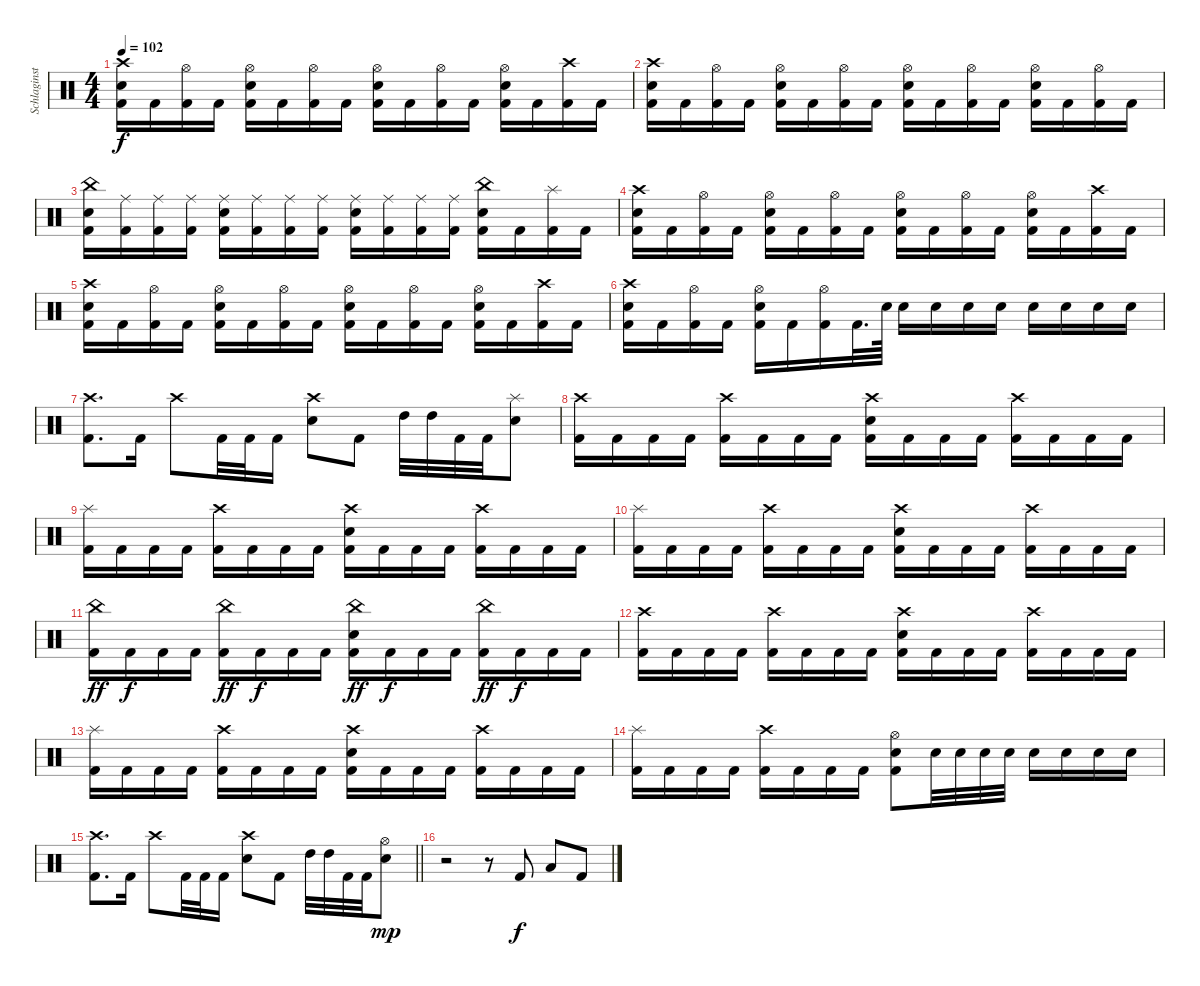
\track ("Schlaginstrumente - Auswahl" "Schlaginst") {instrument percussion}
\staff {score}
\articulation defaults
\ts (4 4)
\tempo 102
\clef neutral
\ks c
("Crash high (hit)" "Snare (hit) 2" "Kick (hit) 2").16{dy f} "Kick (hit) 2".16 ("Hi-Hat (open)" "Kick (hit) 2").16 "Kick (hit) 2".16 ("Hi-Hat (open)" "Snare (hit) 2" "Kick (hit) 2").16 "Kick (hit) 2".16 ("Hi-Hat (open)" "Kick (hit) 2").16 "Kick (hit) 2".16 ("Hi-Hat (open)" "Snare (hit) 2" "Kick (hit) 2").16 "Kick (hit) 2".16 ("Hi-Hat (open)" "Kick (hit) 2").16 "Kick (hit) 2".16 ("Hi-Hat (open)" "Snare (hit) 2" "Kick (hit) 2").16 "Kick (hit) 2".16 ("Crash high (hit)" "Kick (hit) 2").16 "Kick (hit) 2".16 |
("Crash high (hit)" "Snare (hit) 2" "Kick (hit) 2").16 "Kick (hit) 2".16 ("Hi-Hat (open)" "Kick (hit) 2").16 "Kick (hit) 2".16 ("Hi-Hat (open)" "Snare (hit) 2" "Kick (hit) 2").16 "Kick (hit) 2".16 ("Hi-Hat (open)" "Kick (hit) 2").16 "Kick (hit) 2".16 ("Hi-Hat (open)" "Snare (hit) 2" "Kick (hit) 2").16 "Kick (hit) 2".16 ("Hi-Hat (open)" "Kick (hit) 2").16 "Kick (hit) 2".16 ("Hi-Hat (open)" "Snare (hit) 2" "Kick (hit) 2").16 "Kick (hit) 2".16 ("Hi-Hat (open)" "Kick (hit) 2").16 "Kick (hit) 2".16 |
("China (hit)" "Snare (hit) 2" "Kick (hit) 2").16 ("Ride (middle)" "Kick (hit) 2").16 ("Ride (middle)" "Kick (hit) 2").16 ("Ride (middle)" "Kick (hit) 2").16 ("Ride (middle)" "Snare (hit) 2" "Kick (hit) 2").16 ("Ride (middle)" "Kick (hit) 2").16 ("Ride (middle)" "Kick (hit) 2").16 ("Ride (middle)" "Kick (hit) 2").16 ("Ride (middle)" "Snare (hit) 2" "Kick (hit) 2").16 ("Ride (middle)" "Kick (hit) 2").16 ("Ride (middle)" "Kick (hit) 2").16 ("Ride (middle)" "Kick (hit) 2").16 ("China (hit)" "Snare (hit) 2" "Kick (hit) 2").16 "Kick (hit) 2".16 ("Splash (hit)" "Kick (hit) 2").16 "Kick (hit) 2".16 |
("Crash high (hit)" "Snare (hit) 2" "Kick (hit) 2").16 "Kick (hit) 2".16 ("Hi-Hat (open)" "Kick (hit) 2").16 "Kick (hit) 2".16 ("Hi-Hat (open)" "Snare (hit) 2" "Kick (hit) 2").16 "Kick (hit) 2".16 ("Hi-Hat (open)" "Kick (hit) 2").16 "Kick (hit) 2".16 ("Hi-Hat (open)" "Snare (hit) 2" "Kick (hit) 2").16 "Kick (hit) 2".16 ("Hi-Hat (open)" "Kick (hit) 2").16 "Kick (hit) 2".16 ("Hi-Hat (open)" "Snare (hit) 2" "Kick (hit) 2").16 "Kick (hit) 2".16 ("Crash high (hit)" "Kick (hit) 2").16 "Kick (hit) 2".16 |
("Crash high (hit)" "Snare (hit) 2" "Kick (hit) 2").16 "Kick (hit) 2".16 ("Hi-Hat (open)" "Kick (hit) 2").16 "Kick (hit) 2".16 ("Hi-Hat (open)" "Snare (hit) 2" "Kick (hit) 2").16 "Kick (hit) 2".16 ("Hi-Hat (open)" "Kick (hit) 2").16 "Kick (hit) 2".16 ("Hi-Hat (open)" "Snare (hit) 2" "Kick (hit) 2").16 "Kick (hit) 2".16 ("Hi-Hat (open)" "Kick (hit) 2").16 "Kick (hit) 2".16 ("Hi-Hat (open)" "Snare (hit) 2" "Kick (hit) 2").16 "Kick (hit) 2".16 ("Crash high (hit)" "Kick (hit) 2").16 "Kick (hit) 2".16 |
("Crash high (hit)" "Snare (hit) 2" "Kick (hit) 2").16 "Kick (hit) 2".16 ("Hi-Hat (open)" "Kick (hit) 2").16 "Kick (hit) 2".16 ("Hi-Hat (open)" "Snare (hit) 2" "Kick (hit) 2").16 "Kick (hit) 2".16 ("Hi-Hat (open)" "Kick (hit) 2").16 "Kick (hit) 2".32{d} "Snare (hit) 2".64 "Snare (hit) 2".16 "Snare (hit) 2".16 "Snare (hit) 2".16 "Snare (hit) 2".16 "Snare (hit) 2".16 "Snare (hit) 2".16 "Snare (hit) 2".16 "Snare (hit) 2".16 |
("Crash high (hit)" "Kick (hit) 2").8{d} "Kick (hit) 2".16 "Crash high (hit)".8 "Kick (hit) 2".32 "Kick (hit) 2".32 "Kick (hit) 2".16 ("Crash high (hit)" "Snare (hit) 2").8 "Kick (hit) 2".8 "High Tom (hit)".32 "High Tom (hit)".32 "Kick (hit) 2".32 "Kick (hit) 2".32 ("Splash (hit)" "Snare (hit) 2").8 |
("Crash high (hit)" "Kick (hit) 2").16 "Kick (hit) 2".16 "Kick (hit) 2".16 "Kick (hit) 2".16 ("Crash high (hit)" "Kick (hit) 2").16 "Kick (hit) 2".16 "Kick (hit) 2".16 "Kick (hit) 2".16 ("Crash high (hit)" "Snare (hit) 2" "Kick (hit) 2").16 "Kick (hit) 2".16 "Kick (hit) 2".16 "Kick (hit) 2".16 ("Crash high (hit)" "Kick (hit) 2").16 "Kick (hit) 2".16 "Kick (hit) 2".16 "Kick (hit) 2".16 |
("Splash (hit)" "Kick (hit) 2").16 "Kick (hit) 2".16 "Kick (hit) 2".16 "Kick (hit) 2".16 ("Crash high (hit)" "Kick (hit) 2").16 "Kick (hit) 2".16 "Kick (hit) 2".16 "Kick (hit) 2".16 ("Crash high (hit)" "Snare (hit) 2" "Kick (hit) 2").16 "Kick (hit) 2".16 "Kick (hit) 2".16 "Kick (hit) 2".16 ("Crash high (hit)" "Kick (hit) 2").16 "Kick (hit) 2".16 "Kick (hit) 2".16 "Kick (hit) 2".16 |
("Splash (hit)" "Kick (hit) 2").16 "Kick (hit) 2".16 "Kick (hit) 2".16 "Kick (hit) 2".16 ("Crash high (hit)" "Kick (hit) 2").16 "Kick (hit) 2".16 "Kick (hit) 2".16 "Kick (hit) 2".16 ("Crash high (hit)" "Snare (hit) 2" "Kick (hit) 2").16 "Kick (hit) 2".16 "Kick (hit) 2".16 "Kick (hit) 2".16 ("Crash high (hit)" "Kick (hit) 2").16 "Kick (hit) 2".16 "Kick (hit) 2".16 "Kick (hit) 2".16 |
("China (hit)" "Kick (hit) 2").16{dy ff} "Kick (hit) 2".16{dy f} "Kick (hit) 2".16 "Kick (hit) 2".16 ("China (hit)" "Kick (hit) 2").16{dy ff} "Kick (hit) 2".16{dy f} "Kick (hit) 2".16 "Kick (hit) 2".16 ("China (hit)" "Snare (hit) 2" "Kick (hit) 2").16{dy ff} "Kick (hit) 2".16{dy f} "Kick (hit) 2".16 "Kick (hit) 2".16 ("China (hit)" "Kick (hit) 2").16{dy ff} "Kick (hit) 2".16{dy f} "Kick (hit) 2".16 "Kick (hit) 2".16 |
("Crash high (hit)" "Kick (hit) 2").16 "Kick (hit) 2".16 "Kick (hit) 2".16 "Kick (hit) 2".16 ("Crash high (hit)" "Kick (hit) 2").16 "Kick (hit) 2".16 "Kick (hit) 2".16 "Kick (hit) 2".16 ("Crash high (hit)" "Snare (hit) 2" "Kick (hit) 2").16 "Kick (hit) 2".16 "Kick (hit) 2".16 "Kick (hit) 2".16 ("Crash high (hit)" "Kick (hit) 2").16 "Kick (hit) 2".16 "Kick (hit) 2".16 "Kick (hit) 2".16 |
("Splash (hit)" "Kick (hit) 2").16 "Kick (hit) 2".16 "Kick (hit) 2".16 "Kick (hit) 2".16 ("Crash high (hit)" "Kick (hit) 2").16 "Kick (hit) 2".16 "Kick (hit) 2".16 "Kick (hit) 2".16 ("Crash high (hit)" "Snare (hit) 2" "Kick (hit) 2").16 "Kick (hit) 2".16 "Kick (hit) 2".16 "Kick (hit) 2".16 ("Crash high (hit)" "Kick (hit) 2").16 "Kick (hit) 2".16 "Kick (hit) 2".16 "Kick (hit) 2".16 |
("Splash (hit)" "Kick (hit) 2").16 "Kick (hit) 2".16 "Kick (hit) 2".16 "Kick (hit) 2".16 ("Crash high (hit)" "Kick (hit) 2").16 "Kick (hit) 2".16 "Kick (hit) 2".16 "Kick (hit) 2".16 ("Hi-Hat (open)" "Snare (hit) 2" "Kick (hit) 2").8 "Snare (hit) 2".32 "Snare (hit) 2".32 "Snare (hit) 2".32 "Snare (hit) 2".32 "Snare (hit) 2".16 "Snare (hit) 2".16 "Snare (hit) 2".16 "Snare (hit) 2".16 |
\barLineRight lightlight
("Crash high (hit)" "Kick (hit) 2").8{d} "Kick (hit) 2".16 "Crash high (hit)".8 "Kick (hit) 2".32 "Kick (hit) 2".32 "Kick (hit) 2".16 ("Crash high (hit)" "Snare (hit) 2").8 "Kick (hit) 2".8 "High Tom (hit)".32 "High Tom (hit)".32 "Kick (hit) 2".32 "Kick (hit) 2".32 ("Hi-Hat (open)" "Snare (hit) 2").8{dy mp} |
r.2 r.8 "Kick (hit) 2".8{dy f} "Low Floor Tom (hit)".8 "Kick (hit) 2".8
